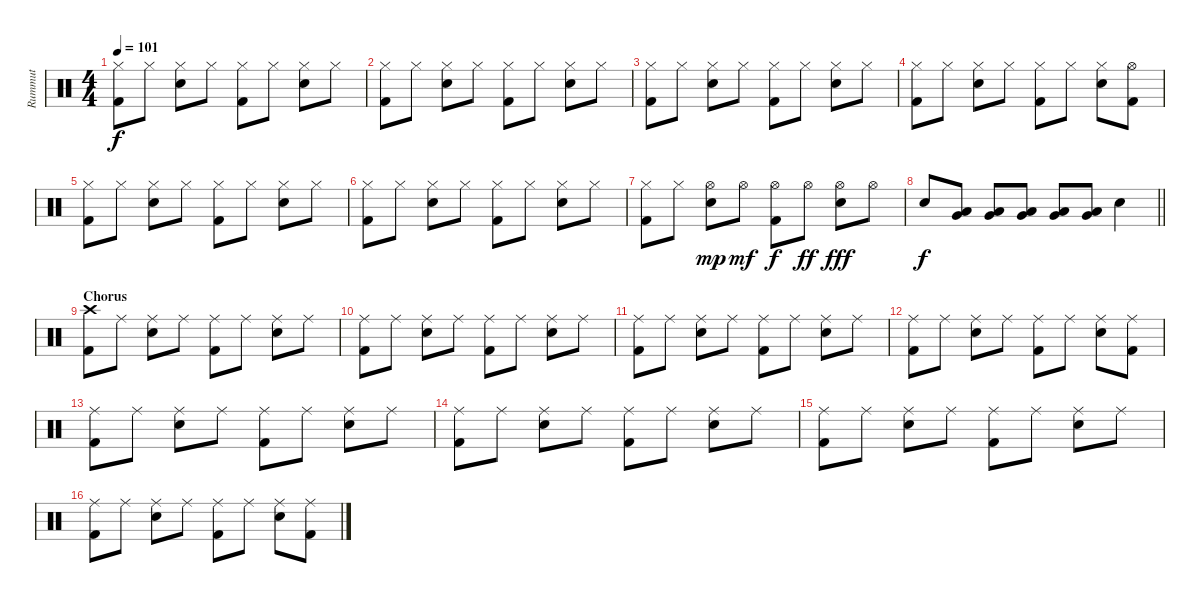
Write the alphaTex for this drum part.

\track ("Rummut" "Rummut") {instrument percussion}
\staff {score}
\articulation defaults
\ts (4 4)
\tempo 101
\clef neutral
\ks c
("Hi-Hat (closed)" "Kick (hit) 2").8{dy f} "Hi-Hat (closed)".8 ("Hi-Hat (closed)" "Electric Snare (hit)").8 "Hi-Hat (closed)".8 ("Hi-Hat (closed)" "Kick (hit) 2").8 "Hi-Hat (closed)".8 ("Hi-Hat (closed)" "Electric Snare (hit)").8 "Hi-Hat (closed)".8 |
("Hi-Hat (closed)" "Kick (hit) 2").8 "Hi-Hat (closed)".8 ("Hi-Hat (closed)" "Electric Snare (hit)").8 "Hi-Hat (closed)".8 ("Hi-Hat (closed)" "Kick (hit) 2").8 "Hi-Hat (closed)".8 ("Hi-Hat (closed)" "Electric Snare (hit)").8 "Hi-Hat (closed)".8 |
("Hi-Hat (closed)" "Kick (hit) 2").8 "Hi-Hat (closed)".8 ("Hi-Hat (closed)" "Electric Snare (hit)").8 "Hi-Hat (closed)".8 ("Hi-Hat (closed)" "Kick (hit) 2").8 "Hi-Hat (closed)".8 ("Hi-Hat (closed)" "Electric Snare (hit)").8 "Hi-Hat (closed)".8 |
("Hi-Hat (closed)" "Kick (hit) 2").8 "Hi-Hat (closed)".8 ("Hi-Hat (closed)" "Electric Snare (hit)").8 "Hi-Hat (closed)".8 ("Hi-Hat (closed)" "Kick (hit) 2").8 "Hi-Hat (closed)".8 ("Hi-Hat (closed)" "Electric Snare (hit)").8 ("Hi-Hat (open)" "Kick (hit) 2").8 |
("Hi-Hat (closed)" "Kick (hit) 2").8 "Hi-Hat (closed)".8 ("Hi-Hat (closed)" "Electric Snare (hit)").8 "Hi-Hat (closed)".8 ("Hi-Hat (closed)" "Kick (hit) 2").8 "Hi-Hat (closed)".8 ("Hi-Hat (closed)" "Electric Snare (hit)").8 "Hi-Hat (closed)".8 |
("Hi-Hat (closed)" "Kick (hit) 2").8 "Hi-Hat (closed)".8 ("Hi-Hat (closed)" "Electric Snare (hit)").8 "Hi-Hat (closed)".8 ("Hi-Hat (closed)" "Kick (hit) 2").8 "Hi-Hat (closed)".8 ("Hi-Hat (closed)" "Electric Snare (hit)").8 "Hi-Hat (closed)".8 |
("Hi-Hat (closed)" "Kick (hit) 2").8 "Hi-Hat (closed)".8 ("Hi-Hat (open)" "Electric Snare (hit)").8{dy mp} "Hi-Hat (open)".8{dy mf} ("Hi-Hat (open)" "Kick (hit) 2").8{dy f} "Hi-Hat (open)".8{dy ff} ("Hi-Hat (open)" "Electric Snare (hit)").8{dy fff} "Hi-Hat (open)".8 |
\barLineRight lightlight "Electric Snare (hit)".8{dy f}
("Very Low Tom (hit)" "Low Floor Tom (hit)").8 ("Very Low Tom (hit)" "Low Floor Tom (hit)").8 ("Very Low Tom (hit)" "Low Floor Tom (hit)").8 ("Very Low Tom (hit)" "Low Floor Tom (hit)").8 ("Very Low Tom (hit)" "Low Floor Tom (hit)").8 "Electric Snare (hit)".4 |
\section ("" "Chorus")
("Crash high (hit)" "Kick (hit) 2").8 "Ride (middle)".8 ("Ride (middle)" "Electric Snare (hit)").8 "Ride (middle)".8 ("Ride (middle)" "Kick (hit) 2").8 "Ride (middle)".8 ("Ride (middle)" "Electric Snare (hit)").8 "Ride (middle)".8 |
("Ride (middle)" "Kick (hit) 2").8 "Ride (middle)".8 ("Ride (middle)" "Electric Snare (hit)").8 "Ride (middle)".8 ("Ride (middle)" "Kick (hit) 2").8 "Ride (middle)".8 ("Ride (middle)" "Electric Snare (hit)").8 "Ride (middle)".8 |
("Ride (middle)" "Kick (hit) 2").8 "Ride (middle)".8 ("Ride (middle)" "Electric Snare (hit)").8 "Ride (middle)".8 ("Ride (middle)" "Kick (hit) 2").8 "Ride (middle)".8 ("Ride (middle)" "Electric Snare (hit)").8 "Ride (middle)".8 |
("Ride (middle)" "Kick (hit) 2").8 "Ride (middle)".8 ("Ride (middle)" "Electric Snare (hit)").8 "Ride (middle)".8 ("Ride (middle)" "Kick (hit) 2").8 "Ride (middle)".8 ("Ride (middle)" "Electric Snare (hit)").8 ("Ride (middle)" "Kick (hit) 2").8 |
("Ride (middle)" "Kick (hit) 2").8 "Ride (middle)".8 ("Ride (middle)" "Electric Snare (hit)").8 "Ride (middle)".8 ("Ride (middle)" "Kick (hit) 2").8 "Ride (middle)".8 ("Ride (middle)" "Electric Snare (hit)").8 "Ride (middle)".8 |
("Ride (middle)" "Kick (hit) 2").8 "Ride (middle)".8 ("Ride (middle)" "Electric Snare (hit)").8 "Ride (middle)".8 ("Ride (middle)" "Kick (hit) 2").8 "Ride (middle)".8 ("Ride (middle)" "Electric Snare (hit)").8 "Ride (middle)".8 |
("Ride (middle)" "Kick (hit) 2").8 "Ride (middle)".8 ("Ride (middle)" "Electric Snare (hit)").8 "Ride (middle)".8 ("Ride (middle)" "Kick (hit) 2").8 "Ride (middle)".8 ("Ride (middle)" "Electric Snare (hit)").8 "Ride (middle)".8 |
("Ride (middle)" "Kick (hit) 2").8 "Ride (middle)".8 ("Ride (middle)" "Electric Snare (hit)").8 "Ride (middle)".8 ("Ride (middle)" "Kick (hit) 2").8 "Ride (middle)".8 ("Ride (middle)" "Electric Snare (hit)").8 ("Ride (middle)" "Kick (hit) 2").8
